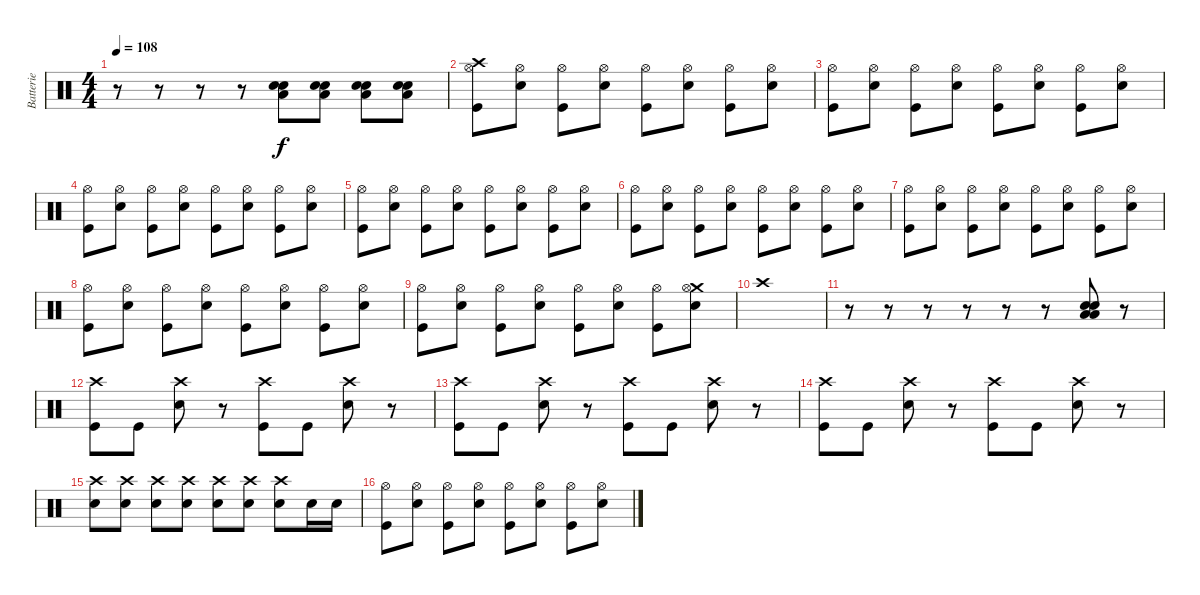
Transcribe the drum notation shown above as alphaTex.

\track ("Batterie" "Batterie") {instrument percussion}
\staff {score}
\articulation defaults
\ts (4 4)
\tempo 108
\clef neutral
\ks c
r.8{dy f} r.8 r.8 r.8 ("Low Floor Tom (hit)" "Electric Snare (hit)" "Snare (hit) 2").8 ("Low Floor Tom (hit)" "Electric Snare (hit)" "Snare (hit) 2").8 ("Low Floor Tom (hit)" "Electric Snare (hit)" "Snare (hit) 2").8 ("Low Floor Tom (hit)" "Electric Snare (hit)" "Snare (hit) 2").8 |
("Crash high (hit)" "Hi-Hat (open)" "Kick (hit)").8 ("Hi-Hat (open)" "Snare (hit) 2").8 ("Hi-Hat (open)" "Kick (hit)").8 ("Hi-Hat (open)" "Snare (hit) 2").8 ("Hi-Hat (open)" "Kick (hit)").8 ("Hi-Hat (open)" "Snare (hit) 2").8 ("Hi-Hat (open)" "Kick (hit)").8 ("Hi-Hat (open)" "Snare (hit) 2").8 |
("Hi-Hat (open)" "Kick (hit)").8 ("Hi-Hat (open)" "Snare (hit) 2").8 ("Hi-Hat (open)" "Kick (hit)").8 ("Hi-Hat (open)" "Snare (hit) 2").8 ("Hi-Hat (open)" "Kick (hit)").8 ("Hi-Hat (open)" "Snare (hit) 2").8 ("Hi-Hat (open)" "Kick (hit)").8 ("Hi-Hat (open)" "Snare (hit) 2").8 |
("Hi-Hat (open)" "Kick (hit)").8 ("Hi-Hat (open)" "Snare (hit) 2").8 ("Hi-Hat (open)" "Kick (hit)").8 ("Hi-Hat (open)" "Snare (hit) 2").8 ("Hi-Hat (open)" "Kick (hit)").8 ("Hi-Hat (open)" "Snare (hit) 2").8 ("Hi-Hat (open)" "Kick (hit)").8 ("Hi-Hat (open)" "Snare (hit) 2").8 |
("Hi-Hat (open)" "Kick (hit)").8 ("Hi-Hat (open)" "Snare (hit) 2").8 ("Hi-Hat (open)" "Kick (hit)").8 ("Hi-Hat (open)" "Snare (hit) 2").8 ("Hi-Hat (open)" "Kick (hit)").8 ("Hi-Hat (open)" "Snare (hit) 2").8 ("Hi-Hat (open)" "Kick (hit)").8 ("Hi-Hat (open)" "Snare (hit) 2").8 |
("Hi-Hat (open)" "Kick (hit)").8 ("Hi-Hat (open)" "Snare (hit) 2").8 ("Hi-Hat (open)" "Kick (hit)").8 ("Hi-Hat (open)" "Snare (hit) 2").8 ("Hi-Hat (open)" "Kick (hit)").8 ("Hi-Hat (open)" "Snare (hit) 2").8 ("Hi-Hat (open)" "Kick (hit)").8 ("Hi-Hat (open)" "Snare (hit) 2").8 |
("Hi-Hat (open)" "Kick (hit)").8 ("Hi-Hat (open)" "Snare (hit) 2").8 ("Hi-Hat (open)" "Kick (hit)").8 ("Hi-Hat (open)" "Snare (hit) 2").8 ("Hi-Hat (open)" "Kick (hit)").8 ("Hi-Hat (open)" "Snare (hit) 2").8 ("Hi-Hat (open)" "Kick (hit)").8 ("Hi-Hat (open)" "Snare (hit) 2").8 |
("Hi-Hat (open)" "Kick (hit)").8 ("Hi-Hat (open)" "Snare (hit) 2").8 ("Hi-Hat (open)" "Kick (hit)").8 ("Hi-Hat (open)" "Snare (hit) 2").8 ("Hi-Hat (open)" "Kick (hit)").8 ("Hi-Hat (open)" "Snare (hit) 2").8 ("Hi-Hat (open)" "Kick (hit)").8 ("Hi-Hat (open)" "Snare (hit) 2").8 |
("Hi-Hat (open)" "Kick (hit)").8 ("Hi-Hat (open)" "Snare (hit) 2").8 ("Hi-Hat (open)" "Kick (hit)").8 ("Hi-Hat (open)" "Snare (hit) 2").8 ("Hi-Hat (open)" "Kick (hit)").8 ("Hi-Hat (open)" "Snare (hit) 2").8 ("Hi-Hat (open)" "Kick (hit)").8 ("Crash medium (hit)" "Hi-Hat (open)" "Snare (hit) 2").8 |
"Crash high (hit)".1 |
r.8 r.8 r.8 r.8 r.8 r.8 ("Low Floor Tom (hit)" "Snare (hit) 2" "Electric Snare (hit)" "Low Tom (hit)").8{volume 16} r.8 |
("Crash high (hit)" "Kick (hit)").8 "Kick (hit)".8 ("Crash high (hit)" "Snare (hit) 2").8 r.8 ("Crash high (hit)" "Kick (hit)").8 "Kick (hit)".8 ("Crash high (hit)" "Snare (hit) 2").8 r.8 |
("Crash high (hit)" "Kick (hit)").8 "Kick (hit)".8 ("Crash high (hit)" "Snare (hit) 2").8 r.8 ("Crash high (hit)" "Kick (hit)").8 "Kick (hit)".8 ("Crash high (hit)" "Snare (hit) 2").8 r.8 |
("Crash high (hit)" "Kick (hit)").8 "Kick (hit)".8 ("Crash high (hit)" "Snare (hit) 2").8 r.8 ("Crash high (hit)" "Kick (hit)").8 "Kick (hit)".8 ("Crash high (hit)" "Snare (hit) 2").8 r.8 |
("Crash high (hit)" "Snare (hit) 2").8 ("Crash high (hit)" "Snare (hit) 2").8 ("Crash high (hit)" "Snare (hit) 2").8 ("Crash high (hit)" "Snare (hit) 2").8 ("Crash high (hit)" "Snare (hit) 2").8 ("Crash high (hit)" "Snare (hit) 2").8 ("Crash high (hit)" "Snare (hit) 2").8 "Snare (hit) 2".16 "Snare (hit) 2".16 |
("Hi-Hat (open)" "Kick (hit)").8 ("Hi-Hat (open)" "Snare (hit) 2").8 ("Hi-Hat (open)" "Kick (hit)").8 ("Hi-Hat (open)" "Snare (hit) 2").8 ("Hi-Hat (open)" "Kick (hit)").8 ("Hi-Hat (open)" "Snare (hit) 2").8 ("Hi-Hat (open)" "Kick (hit)").8 ("Hi-Hat (open)" "Snare (hit) 2").8
